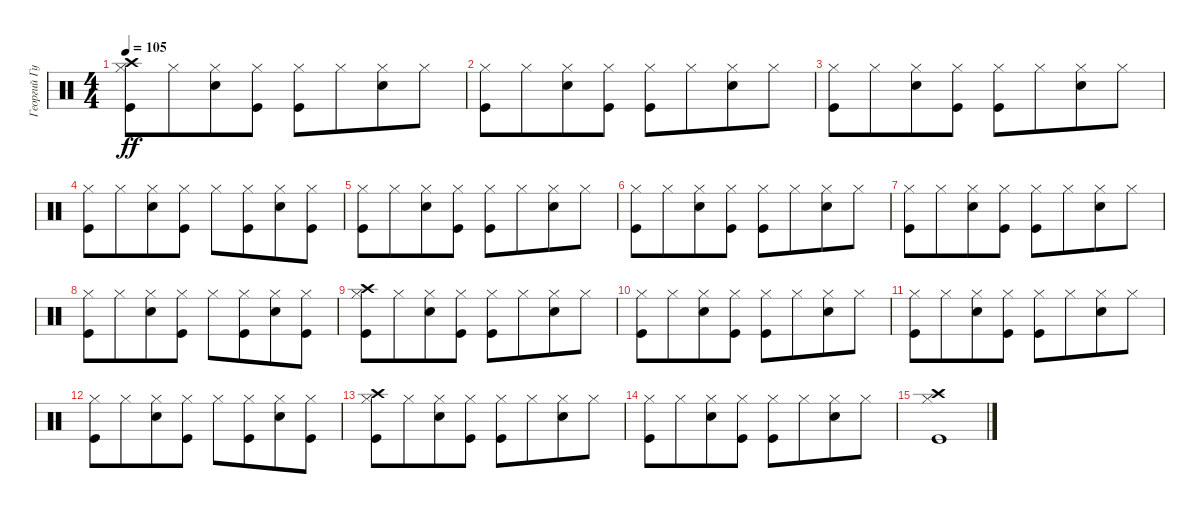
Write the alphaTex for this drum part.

\track ("Георгий Гурьянов" "Георгий Гу") {instrument percussion}
\staff {score}
\articulation defaults
\ts (4 4)
\tempo 105
\clef neutral
\ks c
("Hi-Hat (closed)" "Crash high (hit)" "Kick (hit)").8{dy ff} "Hi-Hat (closed)".8{beam merge} ("Hi-Hat (closed)" "Snare (hit) 2").8 ("Hi-Hat (closed)" "Kick (hit)").8 ("Hi-Hat (closed)" "Kick (hit)").8 "Hi-Hat (closed)".8{beam merge} ("Hi-Hat (closed)" "Snare (hit) 2").8 "Hi-Hat (closed)".8 |
("Hi-Hat (closed)" "Kick (hit)").8 "Hi-Hat (closed)".8{beam merge} ("Hi-Hat (closed)" "Snare (hit) 2").8 ("Hi-Hat (closed)" "Kick (hit)").8 ("Hi-Hat (closed)" "Kick (hit)").8 "Hi-Hat (closed)".8{beam merge} ("Hi-Hat (closed)" "Snare (hit) 2").8 "Hi-Hat (closed)".8 |
("Hi-Hat (closed)" "Kick (hit)").8 "Hi-Hat (closed)".8{beam merge} ("Hi-Hat (closed)" "Snare (hit) 2").8 ("Hi-Hat (closed)" "Kick (hit)").8 ("Hi-Hat (closed)" "Kick (hit)").8 "Hi-Hat (closed)".8{beam merge} ("Hi-Hat (closed)" "Snare (hit) 2").8 "Hi-Hat (closed)".8 |
("Hi-Hat (closed)" "Kick (hit)").8 "Hi-Hat (closed)".8{beam merge} ("Hi-Hat (closed)" "Snare (hit) 2").8 ("Hi-Hat (closed)" "Kick (hit)").8 "Hi-Hat (closed)".8 ("Hi-Hat (closed)" "Kick (hit)").8{beam merge} ("Hi-Hat (closed)" "Snare (hit) 2").8 ("Hi-Hat (closed)" "Kick (hit)").8 |
("Hi-Hat (closed)" "Kick (hit)").8 "Hi-Hat (closed)".8{beam merge} ("Hi-Hat (closed)" "Snare (hit) 2").8 ("Hi-Hat (closed)" "Kick (hit)").8 ("Hi-Hat (closed)" "Kick (hit)").8 "Hi-Hat (closed)".8{beam merge} ("Hi-Hat (closed)" "Snare (hit) 2").8 "Hi-Hat (closed)".8 |
("Hi-Hat (closed)" "Kick (hit)").8 "Hi-Hat (closed)".8{beam merge} ("Hi-Hat (closed)" "Snare (hit) 2").8 ("Hi-Hat (closed)" "Kick (hit)").8 ("Hi-Hat (closed)" "Kick (hit)").8 "Hi-Hat (closed)".8{beam merge} ("Hi-Hat (closed)" "Snare (hit) 2").8 "Hi-Hat (closed)".8 |
("Hi-Hat (closed)" "Kick (hit)").8 "Hi-Hat (closed)".8{beam merge} ("Hi-Hat (closed)" "Snare (hit) 2").8 ("Hi-Hat (closed)" "Kick (hit)").8 ("Hi-Hat (closed)" "Kick (hit)").8 "Hi-Hat (closed)".8{beam merge} ("Hi-Hat (closed)" "Snare (hit) 2").8 "Hi-Hat (closed)".8 |
("Hi-Hat (closed)" "Kick (hit)").8 "Hi-Hat (closed)".8{beam merge} ("Hi-Hat (closed)" "Snare (hit) 2").8 ("Hi-Hat (closed)" "Kick (hit)").8 "Hi-Hat (closed)".8 ("Hi-Hat (closed)" "Kick (hit)").8{beam merge} ("Hi-Hat (closed)" "Snare (hit) 2").8 ("Hi-Hat (closed)" "Kick (hit)").8 |
("Hi-Hat (closed)" "Crash high (hit)" "Kick (hit)").8 "Hi-Hat (closed)".8{beam merge} ("Hi-Hat (closed)" "Snare (hit) 2").8 ("Hi-Hat (closed)" "Kick (hit)").8 ("Hi-Hat (closed)" "Kick (hit)").8 "Hi-Hat (closed)".8{beam merge} ("Hi-Hat (closed)" "Snare (hit) 2").8 "Hi-Hat (closed)".8 |
("Hi-Hat (closed)" "Kick (hit)").8 "Hi-Hat (closed)".8{beam merge} ("Hi-Hat (closed)" "Snare (hit) 2").8 ("Hi-Hat (closed)" "Kick (hit)").8 ("Hi-Hat (closed)" "Kick (hit)").8 "Hi-Hat (closed)".8{beam merge} ("Hi-Hat (closed)" "Snare (hit) 2").8 "Hi-Hat (closed)".8 |
("Hi-Hat (closed)" "Kick (hit)").8 "Hi-Hat (closed)".8{beam merge} ("Hi-Hat (closed)" "Snare (hit) 2").8 ("Hi-Hat (closed)" "Kick (hit)").8 ("Hi-Hat (closed)" "Kick (hit)").8 "Hi-Hat (closed)".8{beam merge} ("Hi-Hat (closed)" "Snare (hit) 2").8 "Hi-Hat (closed)".8 |
("Hi-Hat (closed)" "Kick (hit)").8 "Hi-Hat (closed)".8{beam merge} ("Hi-Hat (closed)" "Snare (hit) 2").8 ("Hi-Hat (closed)" "Kick (hit)").8 "Hi-Hat (closed)".8 ("Hi-Hat (closed)" "Kick (hit)").8{beam merge} ("Hi-Hat (closed)" "Snare (hit) 2").8 ("Hi-Hat (closed)" "Kick (hit)").8 |
("Hi-Hat (closed)" "Crash high (hit)" "Kick (hit)").8 "Hi-Hat (closed)".8{beam merge} ("Hi-Hat (closed)" "Snare (hit) 2").8 ("Hi-Hat (closed)" "Kick (hit)").8 ("Hi-Hat (closed)" "Kick (hit)").8 "Hi-Hat (closed)".8{beam merge} ("Hi-Hat (closed)" "Snare (hit) 2").8 "Hi-Hat (closed)".8 |
("Hi-Hat (closed)" "Kick (hit)").8 "Hi-Hat (closed)".8{beam merge} ("Hi-Hat (closed)" "Snare (hit) 2").8 ("Hi-Hat (closed)" "Kick (hit)").8 ("Hi-Hat (closed)" "Kick (hit)").8 "Hi-Hat (closed)".8{beam merge} ("Hi-Hat (closed)" "Snare (hit) 2").8 "Hi-Hat (closed)".8 |
("Hi-Hat (closed)" "Crash high (hit)" "Kick (hit)").1
